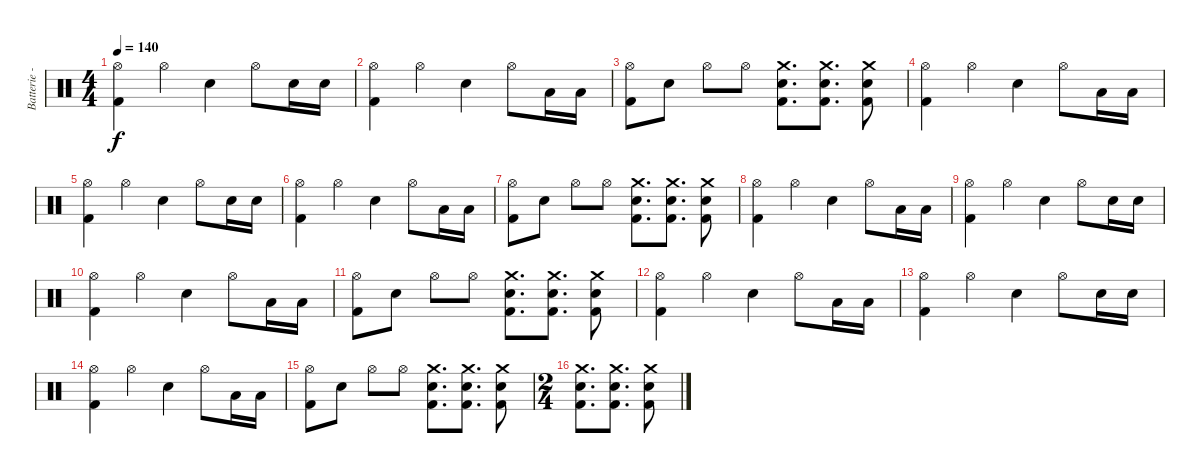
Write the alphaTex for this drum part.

\track ("Batterie - Anders Johansson" "Batterie -") {instrument percussion}
\staff {score}
\articulation defaults
\ts (4 4)
\tempo 140
\clef neutral
\ks c
("Hi-Hat (open)" "Kick (hit) 2").4{dy f} "Hi-Hat (open)".4 "Electric Snare (hit)".4 "Hi-Hat (open)".8 "Electric Snare (hit)".16 "Electric Snare (hit)".16 |
("Hi-Hat (open)" "Kick (hit) 2").4 "Hi-Hat (open)".4 "Electric Snare (hit)".4 "Hi-Hat (open)".8 "Low Tom (hit)".16 "Low Tom (hit)".16 |
("Hi-Hat (open)" "Kick (hit) 2").8 "Electric Snare (hit)".8 "Hi-Hat (open)".8 "Hi-Hat (open)".8 ("Crash medium (hit)" "Electric Snare (hit)" "Kick (hit) 2").8{d} ("Crash medium (hit)" "Electric Snare (hit)" "Kick (hit) 2").8{d} ("Crash medium (hit)" "Electric Snare (hit)" "Kick (hit) 2").8 |
("Hi-Hat (open)" "Kick (hit) 2").4 "Hi-Hat (open)".4 "Electric Snare (hit)".4 "Hi-Hat (open)".8 "Low Tom (hit)".16 "Low Tom (hit)".16 |
("Hi-Hat (open)" "Kick (hit) 2").4 "Hi-Hat (open)".4 "Electric Snare (hit)".4 "Hi-Hat (open)".8 "Electric Snare (hit)".16 "Electric Snare (hit)".16 |
("Hi-Hat (open)" "Kick (hit) 2").4 "Hi-Hat (open)".4 "Electric Snare (hit)".4 "Hi-Hat (open)".8 "Low Tom (hit)".16 "Low Tom (hit)".16 |
("Hi-Hat (open)" "Kick (hit) 2").8 "Electric Snare (hit)".8 "Hi-Hat (open)".8 "Hi-Hat (open)".8 ("Crash medium (hit)" "Electric Snare (hit)" "Kick (hit) 2").8{d} ("Crash medium (hit)" "Electric Snare (hit)" "Kick (hit) 2").8{d} ("Crash medium (hit)" "Electric Snare (hit)" "Kick (hit) 2").8 |
("Hi-Hat (open)" "Kick (hit) 2").4 "Hi-Hat (open)".4 "Electric Snare (hit)".4 "Hi-Hat (open)".8 "Low Tom (hit)".16 "Low Tom (hit)".16 |
("Hi-Hat (open)" "Kick (hit) 2").4 "Hi-Hat (open)".4 "Electric Snare (hit)".4 "Hi-Hat (open)".8 "Electric Snare (hit)".16 "Electric Snare (hit)".16 |
("Hi-Hat (open)" "Kick (hit) 2").4 "Hi-Hat (open)".4 "Electric Snare (hit)".4 "Hi-Hat (open)".8 "Low Tom (hit)".16 "Low Tom (hit)".16 |
("Hi-Hat (open)" "Kick (hit) 2").8 "Electric Snare (hit)".8 "Hi-Hat (open)".8 "Hi-Hat (open)".8 ("Crash medium (hit)" "Electric Snare (hit)" "Kick (hit) 2").8{d} ("Crash medium (hit)" "Electric Snare (hit)" "Kick (hit) 2").8{d} ("Crash medium (hit)" "Electric Snare (hit)" "Kick (hit) 2").8 |
("Hi-Hat (open)" "Kick (hit) 2").4 "Hi-Hat (open)".4 "Electric Snare (hit)".4 "Hi-Hat (open)".8 "Low Tom (hit)".16 "Low Tom (hit)".16 |
("Hi-Hat (open)" "Kick (hit) 2").4 "Hi-Hat (open)".4 "Electric Snare (hit)".4 "Hi-Hat (open)".8 "Electric Snare (hit)".16 "Electric Snare (hit)".16 |
("Hi-Hat (open)" "Kick (hit) 2").4 "Hi-Hat (open)".4 "Electric Snare (hit)".4 "Hi-Hat (open)".8 "Low Tom (hit)".16 "Low Tom (hit)".16 |
("Hi-Hat (open)" "Kick (hit) 2").8 "Electric Snare (hit)".8 "Hi-Hat (open)".8 "Hi-Hat (open)".8 ("Crash medium (hit)" "Electric Snare (hit)" "Kick (hit) 2").8{d} ("Crash medium (hit)" "Electric Snare (hit)" "Kick (hit) 2").8{d} ("Crash medium (hit)" "Electric Snare (hit)" "Kick (hit) 2").8 |
\ts (2 4)
("Crash medium (hit)" "Electric Snare (hit)" "Kick (hit) 2").8{d} ("Crash medium (hit)" "Electric Snare (hit)" "Kick (hit) 2").8{d} ("Crash medium (hit)" "Electric Snare (hit)" "Kick (hit) 2").8
